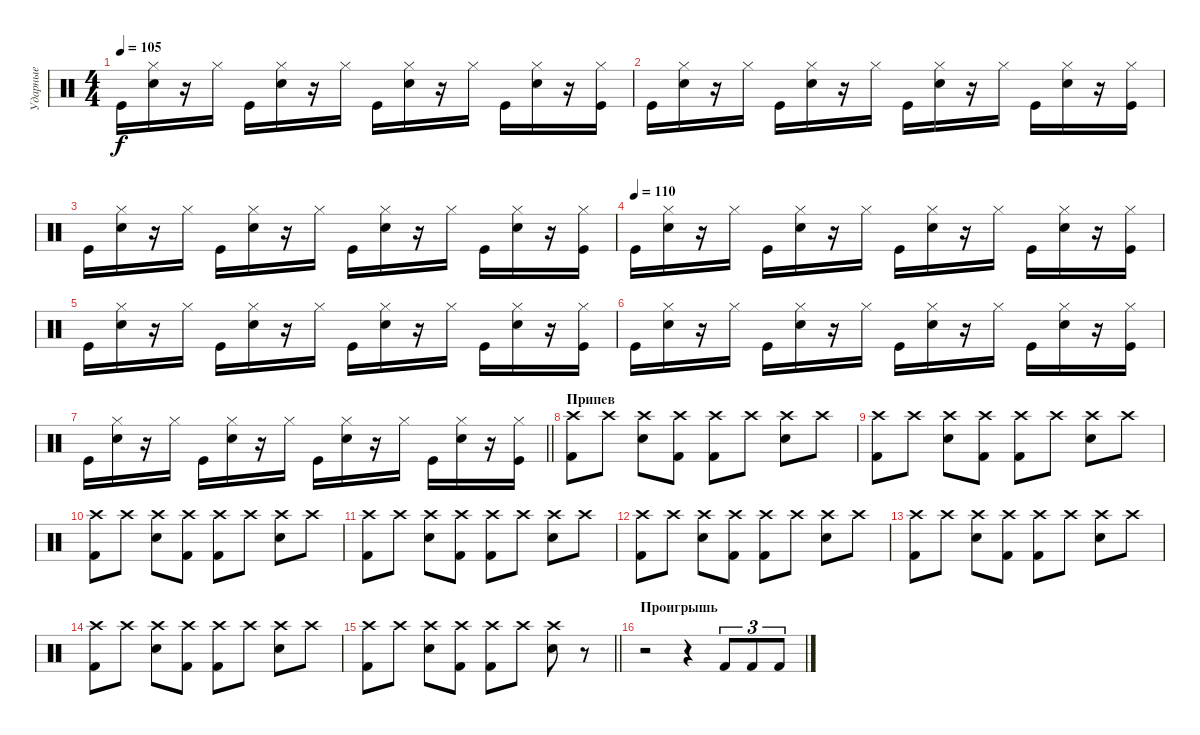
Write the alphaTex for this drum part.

\track ("Ударные" "Ударные") {instrument percussion}
\staff {score}
\articulation defaults
\ts (4 4)
\tempo 105
\clef neutral
\ks c "Kick (hit)".16{dy f}
("Hi-Hat (closed)" "Electric Snare (hit)").16 r.16 "Hi-Hat (closed)".16 "Kick (hit)".16 ("Hi-Hat (closed)" "Electric Snare (hit)").16 r.16 "Hi-Hat (closed)".16 "Kick (hit)".16 ("Hi-Hat (closed)" "Electric Snare (hit)").16 r.16 "Hi-Hat (closed)".16 "Kick (hit)".16 ("Hi-Hat (closed)" "Electric Snare (hit)").16 r.16 ("Hi-Hat (closed)" "Kick (hit)").16 |
"Kick (hit)".16 ("Hi-Hat (closed)" "Electric Snare (hit)").16 r.16 "Hi-Hat (closed)".16 "Kick (hit)".16 ("Hi-Hat (closed)" "Electric Snare (hit)").16 r.16 "Hi-Hat (closed)".16 "Kick (hit)".16 ("Hi-Hat (closed)" "Electric Snare (hit)").16 r.16 "Hi-Hat (closed)".16 "Kick (hit)".16 ("Hi-Hat (closed)" "Electric Snare (hit)").16 r.16 ("Hi-Hat (closed)" "Kick (hit)").16 |
"Kick (hit)".16 ("Hi-Hat (closed)" "Electric Snare (hit)").16 r.16 "Hi-Hat (closed)".16 "Kick (hit)".16 ("Hi-Hat (closed)" "Electric Snare (hit)").16 r.16 "Hi-Hat (closed)".16 "Kick (hit)".16 ("Hi-Hat (closed)" "Electric Snare (hit)").16 r.16 "Hi-Hat (closed)".16 "Kick (hit)".16 ("Hi-Hat (closed)" "Electric Snare (hit)").16 r.16 ("Hi-Hat (closed)" "Kick (hit)").16 |
\tempo (110)
"Kick (hit)".16 ("Hi-Hat (closed)" "Electric Snare (hit)").16 r.16 "Hi-Hat (closed)".16 "Kick (hit)".16 ("Hi-Hat (closed)" "Electric Snare (hit)").16 r.16 "Hi-Hat (closed)".16 "Kick (hit)".16 ("Hi-Hat (closed)" "Electric Snare (hit)").16 r.16 "Hi-Hat (closed)".16 "Kick (hit)".16 ("Hi-Hat (closed)" "Electric Snare (hit)").16 r.16 ("Hi-Hat (closed)" "Kick (hit)").16 |
"Kick (hit)".16 ("Hi-Hat (closed)" "Electric Snare (hit)").16 r.16 "Hi-Hat (closed)".16 "Kick (hit)".16 ("Hi-Hat (closed)" "Electric Snare (hit)").16 r.16 "Hi-Hat (closed)".16 "Kick (hit)".16 ("Hi-Hat (closed)" "Electric Snare (hit)").16 r.16 "Hi-Hat (closed)".16 "Kick (hit)".16 ("Hi-Hat (closed)" "Electric Snare (hit)").16 r.16 ("Hi-Hat (closed)" "Kick (hit)").16 |
"Kick (hit)".16 ("Hi-Hat (closed)" "Electric Snare (hit)").16 r.16 "Hi-Hat (closed)".16 "Kick (hit)".16 ("Hi-Hat (closed)" "Electric Snare (hit)").16 r.16 "Hi-Hat (closed)".16 "Kick (hit)".16 ("Hi-Hat (closed)" "Electric Snare (hit)").16 r.16 "Hi-Hat (closed)".16 "Kick (hit)".16 ("Hi-Hat (closed)" "Electric Snare (hit)").16 r.16 ("Hi-Hat (closed)" "Kick (hit)").16 |
\barLineRight lightlight "Kick (hit)".16
("Hi-Hat (closed)" "Electric Snare (hit)").16 r.16 "Hi-Hat (closed)".16 "Kick (hit)".16 ("Hi-Hat (closed)" "Electric Snare (hit)").16 r.16 "Hi-Hat (closed)".16 "Kick (hit)".16 ("Hi-Hat (closed)" "Electric Snare (hit)").16 r.16 "Hi-Hat (closed)".16 "Kick (hit)".16 ("Hi-Hat (closed)" "Electric Snare (hit)").16 r.16 ("Hi-Hat (closed)" "Kick (hit)").16 |
\section ("" "Припев")
("Crash high (hit)" "Kick (hit) 2").8 "Crash high (hit)".8 ("Crash high (hit)" "Electric Snare (hit)").8 ("Crash high (hit)" "Kick (hit) 2").8 ("Crash high (hit)" "Kick (hit) 2").8 "Crash high (hit)".8 ("Crash high (hit)" "Electric Snare (hit)").8 "Crash high (hit)".8 |
("Crash high (hit)" "Kick (hit) 2").8 "Crash high (hit)".8 ("Crash high (hit)" "Electric Snare (hit)").8 ("Crash high (hit)" "Kick (hit) 2").8 ("Crash high (hit)" "Kick (hit) 2").8 "Crash high (hit)".8 ("Crash high (hit)" "Electric Snare (hit)").8 "Crash high (hit)".8 |
("Crash high (hit)" "Kick (hit) 2").8 "Crash high (hit)".8 ("Crash high (hit)" "Electric Snare (hit)").8 ("Crash high (hit)" "Kick (hit) 2").8 ("Crash high (hit)" "Kick (hit) 2").8 "Crash high (hit)".8 ("Crash high (hit)" "Electric Snare (hit)").8 "Crash high (hit)".8 |
("Crash high (hit)" "Kick (hit) 2").8 "Crash high (hit)".8 ("Crash high (hit)" "Electric Snare (hit)").8 ("Crash high (hit)" "Kick (hit) 2").8 ("Crash high (hit)" "Kick (hit) 2").8 "Crash high (hit)".8 ("Crash high (hit)" "Electric Snare (hit)").8 "Crash high (hit)".8 |
("Crash high (hit)" "Kick (hit) 2").8 "Crash high (hit)".8 ("Crash high (hit)" "Electric Snare (hit)").8 ("Crash high (hit)" "Kick (hit) 2").8 ("Crash high (hit)" "Kick (hit) 2").8 "Crash high (hit)".8 ("Crash high (hit)" "Electric Snare (hit)").8 "Crash high (hit)".8 |
("Crash high (hit)" "Kick (hit) 2").8 "Crash high (hit)".8 ("Crash high (hit)" "Electric Snare (hit)").8 ("Crash high (hit)" "Kick (hit) 2").8 ("Crash high (hit)" "Kick (hit) 2").8 "Crash high (hit)".8 ("Crash high (hit)" "Electric Snare (hit)").8 "Crash high (hit)".8 |
("Crash high (hit)" "Kick (hit) 2").8 "Crash high (hit)".8 ("Crash high (hit)" "Electric Snare (hit)").8 ("Crash high (hit)" "Kick (hit) 2").8 ("Crash high (hit)" "Kick (hit) 2").8 "Crash high (hit)".8 ("Crash high (hit)" "Electric Snare (hit)").8 "Crash high (hit)".8 |
\barLineRight lightlight
("Crash high (hit)" "Kick (hit) 2").8 "Crash high (hit)".8 ("Crash high (hit)" "Electric Snare (hit)").8 ("Crash high (hit)" "Kick (hit) 2").8 ("Crash high (hit)" "Kick (hit) 2").8 "Crash high (hit)".8 ("Crash high (hit)" "Electric Snare (hit)").8 r.8 |
\section ("" "Проигрышь")
r.2 r.4 "Kick (hit) 2".8{tu (3 2)} "Kick (hit) 2".8{tu (3 2)} "Kick (hit) 2".8{tu (3 2)}
